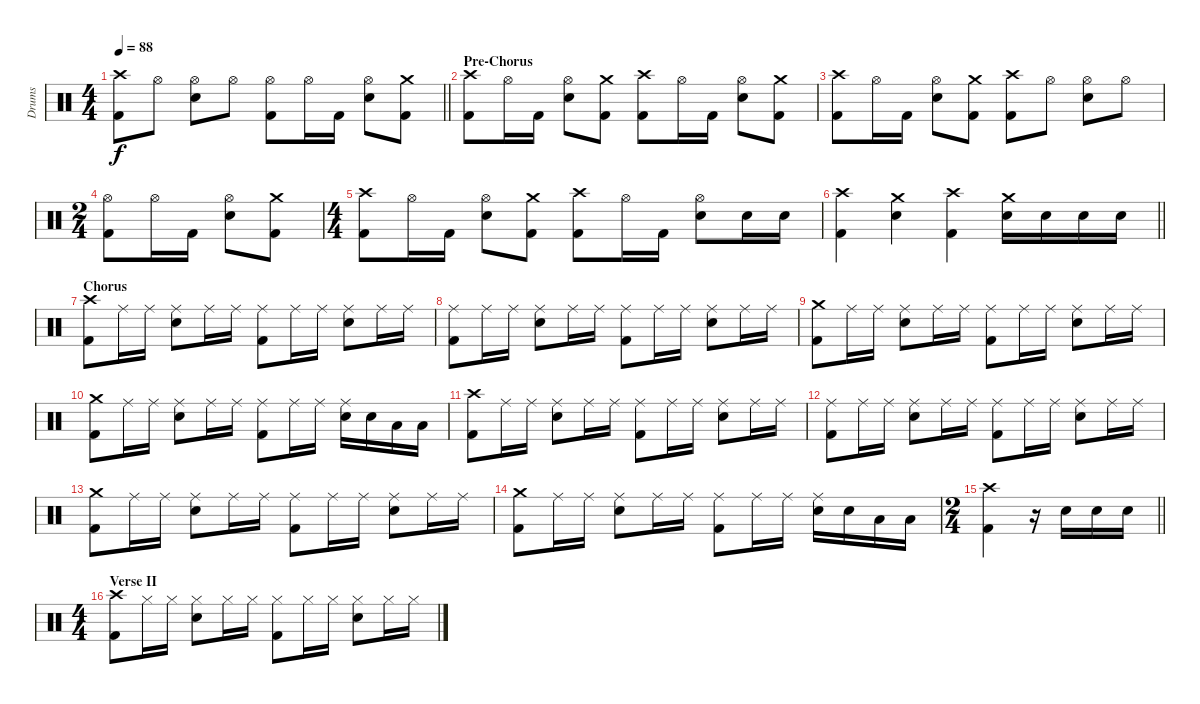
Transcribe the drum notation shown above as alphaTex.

\track ("Drums" "Drums") {instrument percussion}
\staff {score}
\articulation defaults
\ts (4 4)
\tempo 88
\clef neutral
\barLineRight lightlight
\ks c
("Crash high (hit)" "Kick (hit) 2").8{dy f} "Hi-Hat (open)".8 ("Hi-Hat (open)" "Snare (hit) 2").8 "Hi-Hat (open)".8 ("Hi-Hat (open)" "Kick (hit) 2").8 "Hi-Hat (open)".16 "Kick (hit) 2".16 ("Hi-Hat (open)" "Snare (hit) 2").8 ("Crash medium (hit)" "Kick (hit) 2").8 |
\section ("" "Pre-Chorus")
("Crash high (hit)" "Kick (hit) 2").8 "Hi-Hat (open)".16 "Kick (hit) 2".16 ("Hi-Hat (open)" "Snare (hit) 2").8 ("Crash medium (hit)" "Kick (hit) 2").8 ("Crash high (hit)" "Kick (hit) 2").8 "Hi-Hat (open)".16 "Kick (hit) 2".16 ("Hi-Hat (open)" "Snare (hit) 2").8 ("Crash medium (hit)" "Kick (hit) 2").8 |
("Crash high (hit)" "Kick (hit) 2").8 "Hi-Hat (open)".16 "Kick (hit) 2".16 ("Hi-Hat (open)" "Snare (hit) 2").8 ("Crash medium (hit)" "Kick (hit) 2").8 ("Crash high (hit)" "Kick (hit) 2").8 "Hi-Hat (open)".8 ("Hi-Hat (open)" "Snare (hit) 2").8 "Hi-Hat (open)".8 |
\ts (2 4)
("Hi-Hat (open)" "Kick (hit) 2").8 "Hi-Hat (open)".16 "Kick (hit) 2".16 ("Hi-Hat (open)" "Snare (hit) 2").8 ("Crash medium (hit)" "Kick (hit) 2").8 |
\ts (4 4)
("Crash high (hit)" "Kick (hit) 2").8 "Hi-Hat (open)".16 "Kick (hit) 2".16 ("Hi-Hat (open)" "Snare (hit) 2").8 ("Crash medium (hit)" "Kick (hit) 2").8 ("Crash high (hit)" "Kick (hit) 2").8 "Hi-Hat (open)".16 "Kick (hit) 2".16 ("Hi-Hat (open)" "Snare (hit) 2").8 "Snare (hit) 2".16 "Snare (hit) 2".16 |
\barLineRight lightlight
("Crash high (hit)" "Kick (hit) 2").4 ("Crash medium (hit)" "Snare (hit) 2").4 ("Crash high (hit)" "Kick (hit) 2").4 ("Crash medium (hit)" "Snare (hit) 2").16 "Snare (hit) 2".16 "Snare (hit) 2".16 "Snare (hit) 2".16 |
\section ("" "Chorus")
("Crash high (hit)" "Kick (hit) 2").8 "Ride (middle)".16 "Ride (middle)".16 ("Ride (middle)" "Snare (hit) 2").8 "Ride (middle)".16 "Ride (middle)".16 ("Ride (middle)" "Kick (hit) 2").8 "Ride (middle)".16 "Ride (middle)".16 ("Ride (middle)" "Snare (hit) 2").8 "Ride (middle)".16 "Ride (middle)".16 |
("Ride (middle)" "Kick (hit) 2").8 "Ride (middle)".16 "Ride (middle)".16 ("Ride (middle)" "Snare (hit) 2").8 "Ride (middle)".16 "Ride (middle)".16 ("Ride (middle)" "Kick (hit) 2").8 "Ride (middle)".16 "Ride (middle)".16 ("Ride (middle)" "Snare (hit) 2").8 "Ride (middle)".16 "Ride (middle)".16 |
("Crash medium (hit)" "Kick (hit) 2").8 "Ride (middle)".16 "Ride (middle)".16 ("Ride (middle)" "Snare (hit) 2").8 "Ride (middle)".16 "Ride (middle)".16 ("Ride (middle)" "Kick (hit) 2").8 "Ride (middle)".16 "Ride (middle)".16 ("Ride (middle)" "Snare (hit) 2").8 "Ride (middle)".16 "Ride (middle)".16 |
("Crash medium (hit)" "Kick (hit) 2").8 "Ride (middle)".16 "Ride (middle)".16 ("Ride (middle)" "Snare (hit) 2").8 "Ride (middle)".16 "Ride (middle)".16 ("Ride (middle)" "Kick (hit) 2").8 "Ride (middle)".16 "Ride (middle)".16 ("Ride (middle)" "Snare (hit) 2").16 "Snare (hit) 2".16 "Low Tom (hit)".16 "Low Tom (hit)".16 |
("Crash high (hit)" "Kick (hit) 2").8 "Ride (middle)".16 "Ride (middle)".16 ("Ride (middle)" "Snare (hit) 2").8 "Ride (middle)".16 "Ride (middle)".16 ("Ride (middle)" "Kick (hit) 2").8 "Ride (middle)".16 "Ride (middle)".16 ("Ride (middle)" "Snare (hit) 2").8 "Ride (middle)".16 "Ride (middle)".16 |
("Ride (middle)" "Kick (hit) 2").8 "Ride (middle)".16 "Ride (middle)".16 ("Ride (middle)" "Snare (hit) 2").8 "Ride (middle)".16 "Ride (middle)".16 ("Ride (middle)" "Kick (hit) 2").8 "Ride (middle)".16 "Ride (middle)".16 ("Ride (middle)" "Snare (hit) 2").8 "Ride (middle)".16 "Ride (middle)".16 |
("Crash medium (hit)" "Kick (hit) 2").8 "Ride (middle)".16 "Ride (middle)".16 ("Ride (middle)" "Snare (hit) 2").8 "Ride (middle)".16 "Ride (middle)".16 ("Ride (middle)" "Kick (hit) 2").8 "Ride (middle)".16 "Ride (middle)".16 ("Ride (middle)" "Snare (hit) 2").8 "Ride (middle)".16 "Ride (middle)".16 |
("Crash medium (hit)" "Kick (hit) 2").8 "Ride (middle)".16 "Ride (middle)".16 ("Ride (middle)" "Snare (hit) 2").8 "Ride (middle)".16 "Ride (middle)".16 ("Ride (middle)" "Kick (hit) 2").8 "Ride (middle)".16 "Ride (middle)".16 ("Ride (middle)" "Snare (hit) 2").16 "Snare (hit) 2".16 "Low Tom (hit)".16 "Low Tom (hit)".16 |
\ts (2 4)
\barLineRight lightlight
("Crash high (hit)" "Kick (hit) 2").4 r.16 "Snare (hit) 2".16 "Snare (hit) 2".16 "Snare (hit) 2".16 |
\ts (4 4)
\section ("" "Verse II")
("Crash high (hit)" "Kick (hit) 2").8 "Hi-Hat (closed)".16 "Hi-Hat (closed)".16 ("Hi-Hat (closed)" "Snare (hit) 2").8 "Hi-Hat (closed)".16 "Hi-Hat (closed)".16 ("Hi-Hat (closed)" "Kick (hit) 2").8 "Hi-Hat (closed)".16 "Hi-Hat (closed)".16 ("Hi-Hat (closed)" "Snare (hit) 2").8 "Hi-Hat (closed)".16 "Hi-Hat (closed)".16
